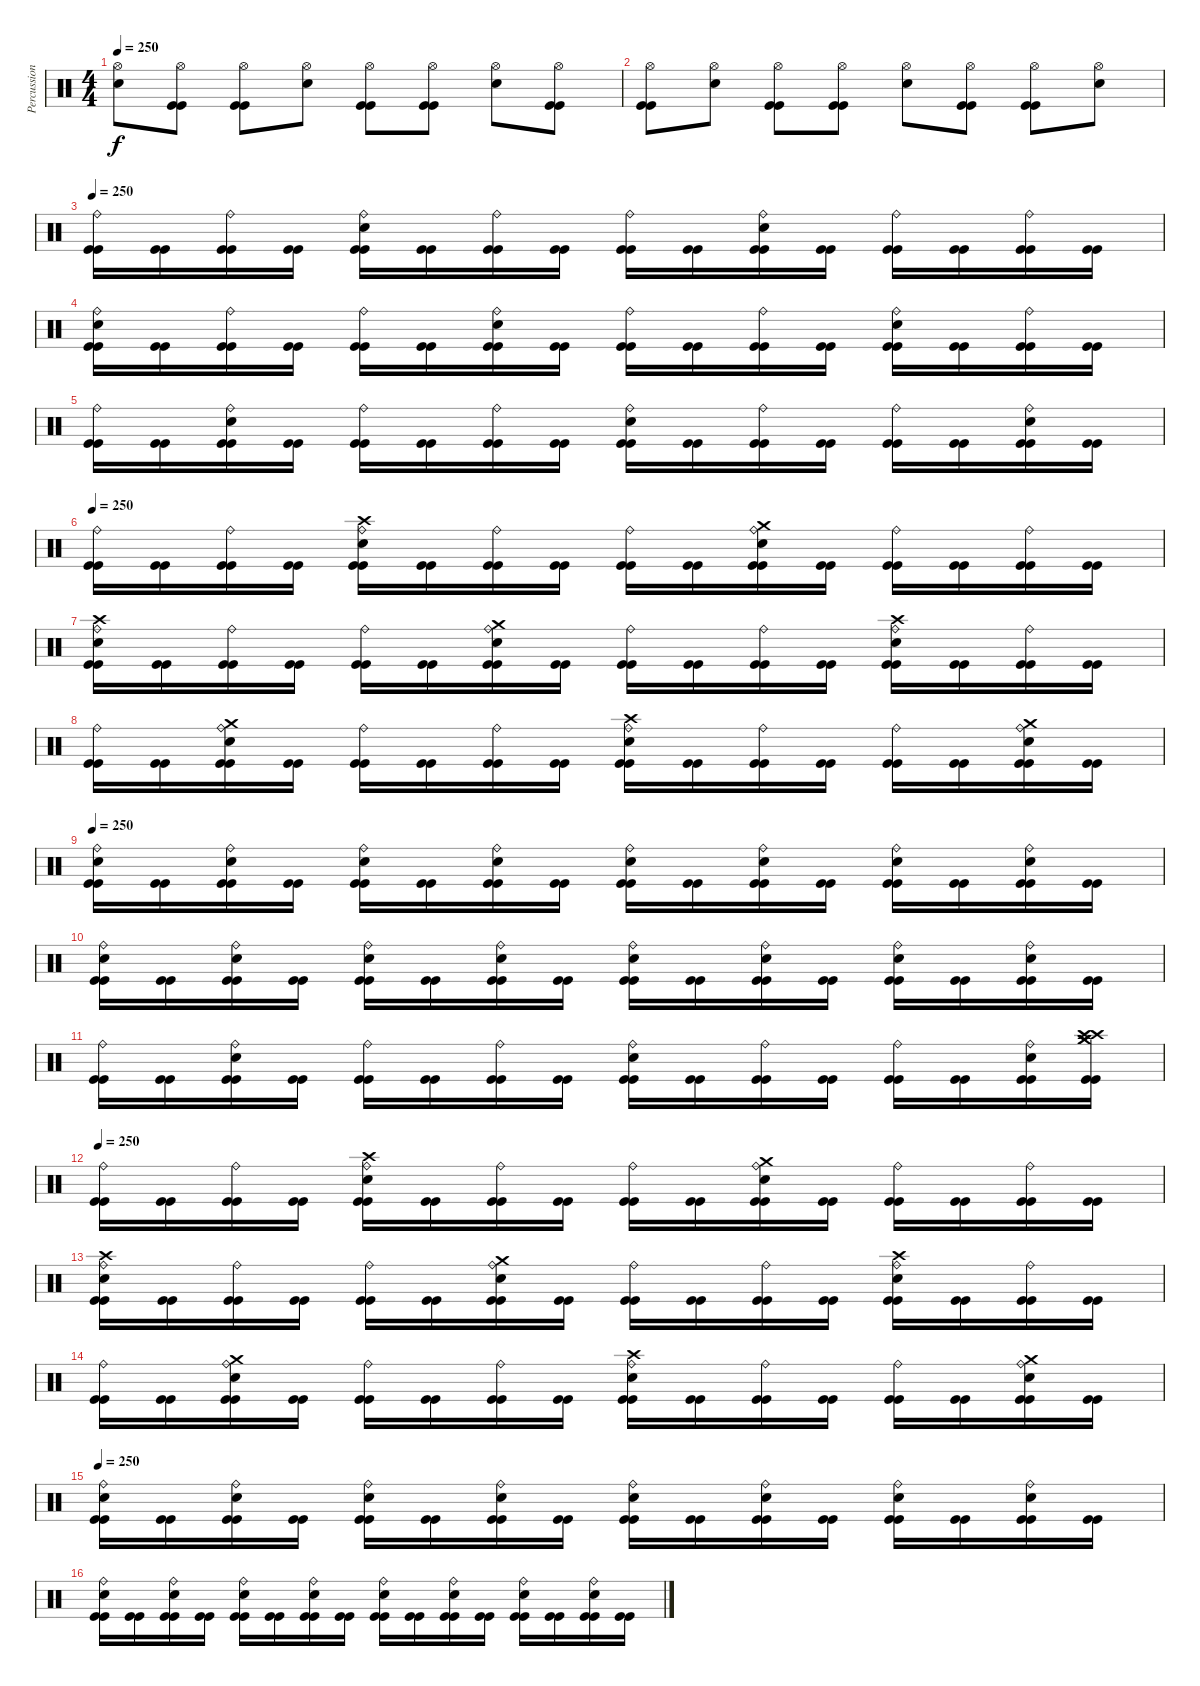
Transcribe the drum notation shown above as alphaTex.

\track ("Percussions" "Percussion") {instrument percussion}
\staff {score}
\articulation defaults
\ts (4 4)
\tempo 250
\clef neutral
\ks c
("Electric Snare (hit)" "Hi-Hat (open)").8{dy f} ("Kick (hit)" "Kick (hit)" "Hi-Hat (open)").8 ("Kick (hit)" "Kick (hit)" "Hi-Hat (open)").8 ("Electric Snare (hit)" "Hi-Hat (open)").8 ("Kick (hit)" "Kick (hit)" "Hi-Hat (open)").8 ("Kick (hit)" "Kick (hit)" "Hi-Hat (open)").8 ("Electric Snare (hit)" "Hi-Hat (open)").8 ("Kick (hit)" "Kick (hit)" "Hi-Hat (open)").8 |
("Kick (hit)" "Kick (hit)" "Hi-Hat (open)").8 ("Electric Snare (hit)" "Hi-Hat (open)").8 ("Kick (hit)" "Kick (hit)" "Hi-Hat (open)").8 ("Kick (hit)" "Kick (hit)" "Hi-Hat (open)").8 ("Electric Snare (hit)" "Hi-Hat (open)").8 ("Kick (hit)" "Kick (hit)" "Hi-Hat (open)").8 ("Kick (hit)" "Kick (hit)" "Hi-Hat (open)").8 ("Electric Snare (hit)" "Hi-Hat (open)").8 |
\tempo 250
("Kick (hit)" "Kick (hit)" "Ride (bell)").16 ("Kick (hit)" "Kick (hit)").16 ("Kick (hit)" "Kick (hit)" "Ride (bell)").16 ("Kick (hit)" "Kick (hit)").16 ("Kick (hit)" "Kick (hit)" "Electric Snare (hit)" "Ride (bell)").16 ("Kick (hit)" "Kick (hit)").16 ("Kick (hit)" "Kick (hit)" "Ride (bell)").16 ("Kick (hit)" "Kick (hit)").16 ("Kick (hit)" "Kick (hit)" "Ride (bell)").16 ("Kick (hit)" "Kick (hit)").16 ("Kick (hit)" "Kick (hit)" "Electric Snare (hit)" "Ride (bell)").16 ("Kick (hit)" "Kick (hit)").16 ("Kick (hit)" "Kick (hit)" "Ride (bell)").16 ("Kick (hit)" "Kick (hit)").16 ("Kick (hit)" "Kick (hit)" "Ride (bell)").16 ("Kick (hit)" "Kick (hit)").16 |
("Kick (hit)" "Kick (hit)" "Electric Snare (hit)" "Ride (bell)").16 ("Kick (hit)" "Kick (hit)").16 ("Kick (hit)" "Kick (hit)" "Ride (bell)").16 ("Kick (hit)" "Kick (hit)").16 ("Kick (hit)" "Kick (hit)" "Ride (bell)").16 ("Kick (hit)" "Kick (hit)").16 ("Kick (hit)" "Kick (hit)" "Electric Snare (hit)" "Ride (bell)").16 ("Kick (hit)" "Kick (hit)").16 ("Kick (hit)" "Kick (hit)" "Ride (bell)").16 ("Kick (hit)" "Kick (hit)").16 ("Kick (hit)" "Kick (hit)" "Ride (bell)").16 ("Kick (hit)" "Kick (hit)").16 ("Kick (hit)" "Kick (hit)" "Electric Snare (hit)" "Ride (bell)").16 ("Kick (hit)" "Kick (hit)").16 ("Kick (hit)" "Kick (hit)" "Ride (bell)").16 ("Kick (hit)" "Kick (hit)").16 |
("Kick (hit)" "Kick (hit)" "Ride (bell)").16 ("Kick (hit)" "Kick (hit)").16 ("Kick (hit)" "Kick (hit)" "Electric Snare (hit)" "Ride (bell)").16 ("Kick (hit)" "Kick (hit)").16 ("Kick (hit)" "Kick (hit)" "Ride (bell)").16 ("Kick (hit)" "Kick (hit)").16 ("Kick (hit)" "Kick (hit)" "Ride (bell)").16 ("Kick (hit)" "Kick (hit)").16 ("Kick (hit)" "Kick (hit)" "Electric Snare (hit)" "Ride (bell)").16 ("Kick (hit)" "Kick (hit)").16 ("Kick (hit)" "Kick (hit)" "Ride (bell)").16 ("Kick (hit)" "Kick (hit)").16 ("Kick (hit)" "Kick (hit)" "Ride (bell)").16 ("Kick (hit)" "Kick (hit)").16 ("Kick (hit)" "Kick (hit)" "Electric Snare (hit)" "Ride (bell)").16 ("Kick (hit)" "Kick (hit)").16 |
\tempo 250
("Kick (hit)" "Kick (hit)" "Ride (bell)").16 ("Kick (hit)" "Kick (hit)").16 ("Kick (hit)" "Kick (hit)" "Ride (bell)").16 ("Kick (hit)" "Kick (hit)").16 ("Kick (hit)" "Kick (hit)" "Electric Snare (hit)" "Ride (bell)" "Crash high (hit)").16 ("Kick (hit)" "Kick (hit)").16 ("Kick (hit)" "Kick (hit)" "Ride (bell)").16 ("Kick (hit)" "Kick (hit)").16 ("Kick (hit)" "Kick (hit)" "Ride (bell)").16 ("Kick (hit)" "Kick (hit)").16 ("Kick (hit)" "Kick (hit)" "Electric Snare (hit)" "Ride (bell)" "Crash medium (hit)").16 ("Kick (hit)" "Kick (hit)").16 ("Kick (hit)" "Kick (hit)" "Ride (bell)").16 ("Kick (hit)" "Kick (hit)").16 ("Kick (hit)" "Kick (hit)" "Ride (bell)").16 ("Kick (hit)" "Kick (hit)").16 |
("Kick (hit)" "Kick (hit)" "Electric Snare (hit)" "Ride (bell)" "Crash high (hit)").16 ("Kick (hit)" "Kick (hit)").16 ("Kick (hit)" "Kick (hit)" "Ride (bell)").16 ("Kick (hit)" "Kick (hit)").16 ("Kick (hit)" "Kick (hit)" "Ride (bell)").16 ("Kick (hit)" "Kick (hit)").16 ("Kick (hit)" "Kick (hit)" "Electric Snare (hit)" "Ride (bell)" "Crash medium (hit)").16 ("Kick (hit)" "Kick (hit)").16 ("Kick (hit)" "Kick (hit)" "Ride (bell)").16 ("Kick (hit)" "Kick (hit)").16 ("Kick (hit)" "Kick (hit)" "Ride (bell)").16 ("Kick (hit)" "Kick (hit)").16 ("Kick (hit)" "Kick (hit)" "Electric Snare (hit)" "Ride (bell)" "Crash high (hit)").16 ("Kick (hit)" "Kick (hit)").16 ("Kick (hit)" "Kick (hit)" "Ride (bell)").16 ("Kick (hit)" "Kick (hit)").16 |
("Kick (hit)" "Kick (hit)" "Ride (bell)").16 ("Kick (hit)" "Kick (hit)").16 ("Kick (hit)" "Kick (hit)" "Electric Snare (hit)" "Ride (bell)" "Crash medium (hit)").16 ("Kick (hit)" "Kick (hit)").16 ("Kick (hit)" "Kick (hit)" "Ride (bell)").16 ("Kick (hit)" "Kick (hit)").16 ("Kick (hit)" "Kick (hit)" "Ride (bell)").16 ("Kick (hit)" "Kick (hit)").16 ("Kick (hit)" "Kick (hit)" "Electric Snare (hit)" "Ride (bell)" "Crash high (hit)").16 ("Kick (hit)" "Kick (hit)").16 ("Kick (hit)" "Kick (hit)" "Ride (bell)").16 ("Kick (hit)" "Kick (hit)").16 ("Kick (hit)" "Kick (hit)" "Ride (bell)").16 ("Kick (hit)" "Kick (hit)").16 ("Kick (hit)" "Kick (hit)" "Electric Snare (hit)" "Ride (bell)" "Crash medium (hit)").16 ("Kick (hit)" "Kick (hit)").16 |
\tempo 250
("Kick (hit)" "Kick (hit)" "Electric Snare (hit)" "Ride (bell)").16 ("Kick (hit)" "Kick (hit)").16 ("Kick (hit)" "Kick (hit)" "Electric Snare (hit)" "Ride (bell)").16 ("Kick (hit)" "Kick (hit)").16 ("Kick (hit)" "Kick (hit)" "Electric Snare (hit)" "Ride (bell)").16 ("Kick (hit)" "Kick (hit)").16 ("Kick (hit)" "Kick (hit)" "Electric Snare (hit)" "Ride (bell)").16 ("Kick (hit)" "Kick (hit)").16 ("Kick (hit)" "Kick (hit)" "Electric Snare (hit)" "Ride (bell)").16 ("Kick (hit)" "Kick (hit)").16 ("Kick (hit)" "Kick (hit)" "Electric Snare (hit)" "Ride (bell)").16 ("Kick (hit)" "Kick (hit)").16 ("Kick (hit)" "Kick (hit)" "Electric Snare (hit)" "Ride (bell)").16 ("Kick (hit)" "Kick (hit)").16 ("Kick (hit)" "Kick (hit)" "Electric Snare (hit)" "Ride (bell)").16 ("Kick (hit)" "Kick (hit)").16 |
("Kick (hit)" "Kick (hit)" "Electric Snare (hit)" "Ride (bell)").16 ("Kick (hit)" "Kick (hit)").16 ("Kick (hit)" "Kick (hit)" "Electric Snare (hit)" "Ride (bell)").16 ("Kick (hit)" "Kick (hit)").16 ("Kick (hit)" "Kick (hit)" "Electric Snare (hit)" "Ride (bell)").16 ("Kick (hit)" "Kick (hit)").16 ("Kick (hit)" "Kick (hit)" "Electric Snare (hit)" "Ride (bell)").16 ("Kick (hit)" "Kick (hit)").16 ("Kick (hit)" "Kick (hit)" "Electric Snare (hit)" "Ride (bell)").16 ("Kick (hit)" "Kick (hit)").16 ("Kick (hit)" "Kick (hit)" "Electric Snare (hit)" "Ride (bell)").16 ("Kick (hit)" "Kick (hit)").16 ("Kick (hit)" "Kick (hit)" "Electric Snare (hit)" "Ride (bell)").16 ("Kick (hit)" "Kick (hit)").16 ("Kick (hit)" "Kick (hit)" "Electric Snare (hit)" "Ride (bell)").16 ("Kick (hit)" "Kick (hit)").16 |
("Kick (hit)" "Kick (hit)" "Ride (bell)").16 ("Kick (hit)" "Kick (hit)").16 ("Kick (hit)" "Kick (hit)" "Electric Snare (hit)" "Ride (bell)").16 ("Kick (hit)" "Kick (hit)").16 ("Kick (hit)" "Kick (hit)" "Ride (bell)").16 ("Kick (hit)" "Kick (hit)").16 ("Kick (hit)" "Kick (hit)" "Ride (bell)").16 ("Kick (hit)" "Kick (hit)").16 ("Kick (hit)" "Kick (hit)" "Electric Snare (hit)" "Ride (bell)").16 ("Kick (hit)" "Kick (hit)").16 ("Kick (hit)" "Kick (hit)" "Ride (bell)").16 ("Kick (hit)" "Kick (hit)").16 ("Kick (hit)" "Kick (hit)" "Ride (bell)").16 ("Kick (hit)" "Kick (hit)").16 ("Kick (hit)" "Kick (hit)" "Electric Snare (hit)" "Ride (bell)").16 ("Kick (hit)" "Kick (hit)" "Crash medium (hit)" "Crash medium (hit)" "Crash high (hit)" "Crash high (hit)").16 |
\tempo 250
("Kick (hit)" "Kick (hit)" "Ride (bell)").16 ("Kick (hit)" "Kick (hit)").16 ("Kick (hit)" "Kick (hit)" "Ride (bell)").16 ("Kick (hit)" "Kick (hit)").16 ("Kick (hit)" "Kick (hit)" "Electric Snare (hit)" "Ride (bell)" "Crash high (hit)").16 ("Kick (hit)" "Kick (hit)").16 ("Kick (hit)" "Kick (hit)" "Ride (bell)").16 ("Kick (hit)" "Kick (hit)").16 ("Kick (hit)" "Kick (hit)" "Ride (bell)").16 ("Kick (hit)" "Kick (hit)").16 ("Kick (hit)" "Kick (hit)" "Electric Snare (hit)" "Ride (bell)" "Crash medium (hit)").16 ("Kick (hit)" "Kick (hit)").16 ("Kick (hit)" "Kick (hit)" "Ride (bell)").16 ("Kick (hit)" "Kick (hit)").16 ("Kick (hit)" "Kick (hit)" "Ride (bell)").16 ("Kick (hit)" "Kick (hit)").16 |
("Kick (hit)" "Kick (hit)" "Electric Snare (hit)" "Ride (bell)" "Crash high (hit)").16 ("Kick (hit)" "Kick (hit)").16 ("Kick (hit)" "Kick (hit)" "Ride (bell)").16 ("Kick (hit)" "Kick (hit)").16 ("Kick (hit)" "Kick (hit)" "Ride (bell)").16 ("Kick (hit)" "Kick (hit)").16 ("Kick (hit)" "Kick (hit)" "Electric Snare (hit)" "Ride (bell)" "Crash medium (hit)").16 ("Kick (hit)" "Kick (hit)").16 ("Kick (hit)" "Kick (hit)" "Ride (bell)").16 ("Kick (hit)" "Kick (hit)").16 ("Kick (hit)" "Kick (hit)" "Ride (bell)").16 ("Kick (hit)" "Kick (hit)").16 ("Kick (hit)" "Kick (hit)" "Electric Snare (hit)" "Ride (bell)" "Crash high (hit)").16 ("Kick (hit)" "Kick (hit)").16 ("Kick (hit)" "Kick (hit)" "Ride (bell)").16 ("Kick (hit)" "Kick (hit)").16 |
("Kick (hit)" "Kick (hit)" "Ride (bell)").16 ("Kick (hit)" "Kick (hit)").16 ("Kick (hit)" "Kick (hit)" "Electric Snare (hit)" "Ride (bell)" "Crash medium (hit)").16 ("Kick (hit)" "Kick (hit)").16 ("Kick (hit)" "Kick (hit)" "Ride (bell)").16 ("Kick (hit)" "Kick (hit)").16 ("Kick (hit)" "Kick (hit)" "Ride (bell)").16 ("Kick (hit)" "Kick (hit)").16 ("Kick (hit)" "Kick (hit)" "Electric Snare (hit)" "Ride (bell)" "Crash high (hit)").16 ("Kick (hit)" "Kick (hit)").16 ("Kick (hit)" "Kick (hit)" "Ride (bell)").16 ("Kick (hit)" "Kick (hit)").16 ("Kick (hit)" "Kick (hit)" "Ride (bell)").16 ("Kick (hit)" "Kick (hit)").16 ("Kick (hit)" "Kick (hit)" "Electric Snare (hit)" "Ride (bell)" "Crash medium (hit)").16 ("Kick (hit)" "Kick (hit)").16 |
\tempo 250
("Kick (hit)" "Kick (hit)" "Electric Snare (hit)" "Ride (bell)").16 ("Kick (hit)" "Kick (hit)").16 ("Kick (hit)" "Kick (hit)" "Electric Snare (hit)" "Ride (bell)").16 ("Kick (hit)" "Kick (hit)").16 ("Kick (hit)" "Kick (hit)" "Electric Snare (hit)" "Ride (bell)").16 ("Kick (hit)" "Kick (hit)").16 ("Kick (hit)" "Kick (hit)" "Electric Snare (hit)" "Ride (bell)").16 ("Kick (hit)" "Kick (hit)").16 ("Kick (hit)" "Kick (hit)" "Electric Snare (hit)" "Ride (bell)").16 ("Kick (hit)" "Kick (hit)").16 ("Kick (hit)" "Kick (hit)" "Electric Snare (hit)" "Ride (bell)").16 ("Kick (hit)" "Kick (hit)").16 ("Kick (hit)" "Kick (hit)" "Electric Snare (hit)" "Ride (bell)").16 ("Kick (hit)" "Kick (hit)").16 ("Kick (hit)" "Kick (hit)" "Electric Snare (hit)" "Ride (bell)").16 ("Kick (hit)" "Kick (hit)").16 |
("Kick (hit)" "Kick (hit)" "Electric Snare (hit)" "Ride (bell)").16 ("Kick (hit)" "Kick (hit)").16 ("Kick (hit)" "Kick (hit)" "Electric Snare (hit)" "Ride (bell)").16 ("Kick (hit)" "Kick (hit)").16 ("Kick (hit)" "Kick (hit)" "Electric Snare (hit)" "Ride (bell)").16 ("Kick (hit)" "Kick (hit)").16 ("Kick (hit)" "Kick (hit)" "Electric Snare (hit)" "Ride (bell)").16 ("Kick (hit)" "Kick (hit)").16 ("Kick (hit)" "Kick (hit)" "Electric Snare (hit)" "Ride (bell)").16 ("Kick (hit)" "Kick (hit)").16 ("Kick (hit)" "Kick (hit)" "Electric Snare (hit)" "Ride (bell)").16 ("Kick (hit)" "Kick (hit)").16 ("Kick (hit)" "Kick (hit)" "Electric Snare (hit)" "Ride (bell)").16 ("Kick (hit)" "Kick (hit)").16 ("Kick (hit)" "Kick (hit)" "Electric Snare (hit)" "Ride (bell)").16 ("Kick (hit)" "Kick (hit)").16
